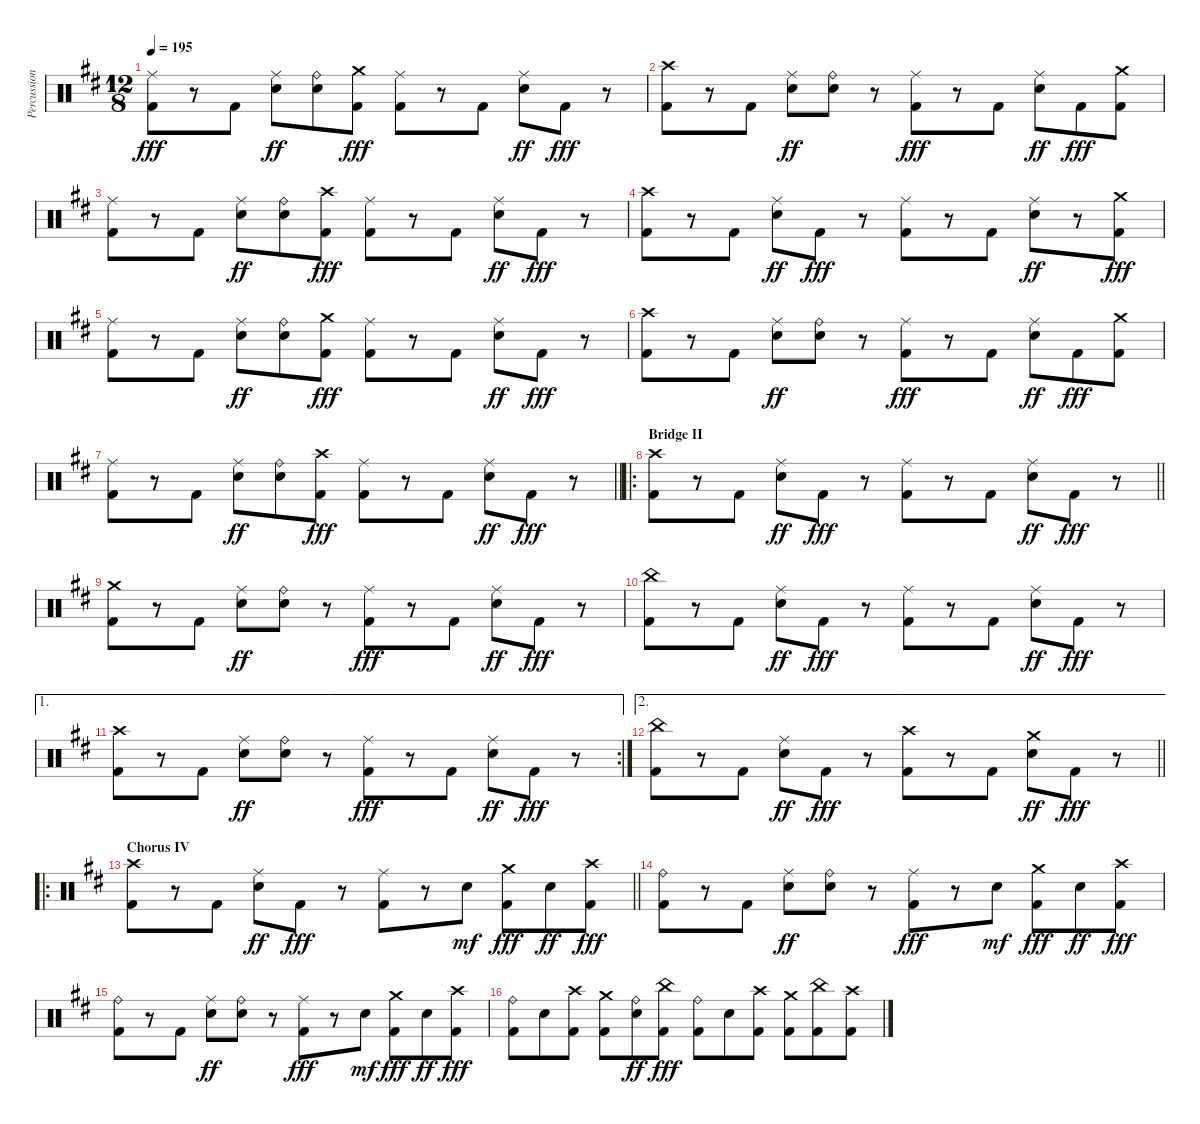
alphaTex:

\track ("Percussion" "Percussion") {instrument percussion}
\staff {score}
\articulation defaults
\ts (12 8)
\tempo 195
\clef neutral
\ks d
("Ride (middle)" "Kick (hit) 2").8{dy fff} r.8 "Kick (hit) 2".8 ("Ride (middle)" "Snare (hit) 2").8{dy ff} ("Ride (bell)" "Snare (hit) 2").8 ("Crash medium (hit)" "Kick (hit) 2").8{dy fff} ("Ride (middle)" "Kick (hit) 2").8 r.8 "Kick (hit) 2".8 ("Ride (middle)" "Snare (hit) 2").8{dy ff} "Kick (hit) 2".8{dy fff} r.8 |
("Crash high (hit)" "Kick (hit) 2").8 r.8 "Kick (hit) 2".8 ("Ride (middle)" "Snare (hit) 2").8{dy ff} ("Ride (bell)" "Snare (hit) 2").8 r.8 ("Ride (middle)" "Kick (hit) 2").8{dy fff} r.8 "Kick (hit) 2".8 ("Ride (middle)" "Snare (hit) 2").8{dy ff} "Kick (hit) 2".8{dy fff} ("Crash medium (hit)" "Kick (hit) 2").8 |
("Ride (middle)" "Kick (hit) 2").8 r.8 "Kick (hit) 2".8 ("Ride (middle)" "Snare (hit) 2").8{dy ff} ("Ride (bell)" "Snare (hit) 2").8 ("Crash high (hit)" "Kick (hit) 2").8{dy fff} ("Ride (middle)" "Kick (hit) 2").8 r.8 "Kick (hit) 2".8 ("Ride (middle)" "Snare (hit) 2").8{dy ff} "Kick (hit) 2".8{dy fff} r.8 |
("Crash high (hit)" "Kick (hit) 2").8 r.8 "Kick (hit) 2".8 ("Ride (middle)" "Snare (hit) 2").8{dy ff} "Kick (hit) 2".8{dy fff} r.8 ("Ride (middle)" "Kick (hit) 2").8 r.8 "Kick (hit) 2".8 ("Ride (middle)" "Snare (hit) 2").8{dy ff} r.8 ("Crash medium (hit)" "Kick (hit) 2").8{dy fff} |
("Ride (middle)" "Kick (hit) 2").8 r.8 "Kick (hit) 2".8 ("Ride (middle)" "Snare (hit) 2").8{dy ff} ("Ride (bell)" "Snare (hit) 2").8 ("Crash medium (hit)" "Kick (hit) 2").8{dy fff} ("Ride (middle)" "Kick (hit) 2").8 r.8 "Kick (hit) 2".8 ("Ride (middle)" "Snare (hit) 2").8{dy ff} "Kick (hit) 2".8{dy fff} r.8 |
("Crash high (hit)" "Kick (hit) 2").8 r.8 "Kick (hit) 2".8 ("Ride (middle)" "Snare (hit) 2").8{dy ff} ("Ride (bell)" "Snare (hit) 2").8 r.8 ("Ride (middle)" "Kick (hit) 2").8{dy fff} r.8 "Kick (hit) 2".8 ("Ride (middle)" "Snare (hit) 2").8{dy ff} "Kick (hit) 2".8{dy fff} ("Crash medium (hit)" "Kick (hit) 2").8 |
\barLineRight lightlight
("Ride (middle)" "Kick (hit) 2").8 r.8 "Kick (hit) 2".8 ("Ride (middle)" "Snare (hit) 2").8{dy ff} ("Ride (bell)" "Snare (hit) 2").8 ("Crash high (hit)" "Kick (hit) 2").8{dy fff} ("Ride (middle)" "Kick (hit) 2").8 r.8 "Kick (hit) 2".8 ("Ride (middle)" "Snare (hit) 2").8{dy ff} "Kick (hit) 2".8{dy fff} r.8 |
\ro
\section ("" "Bridge II")
\barLineRight lightlight
("Crash high (hit)" "Kick (hit) 2").8 r.8 "Kick (hit) 2".8 ("Ride (middle)" "Snare (hit) 2").8{dy ff} "Kick (hit) 2".8{dy fff} r.8 ("Ride (middle)" "Kick (hit) 2").8 r.8 "Kick (hit) 2".8 ("Ride (middle)" "Snare (hit) 2").8{dy ff} "Kick (hit) 2".8{dy fff} r.8 |
("Crash medium (hit)" "Kick (hit) 2").8 r.8 "Kick (hit) 2".8 ("Ride (middle)" "Snare (hit) 2").8{dy ff} ("Ride (bell)" "Snare (hit) 2").8 r.8 ("Ride (middle)" "Kick (hit) 2").8{dy fff} r.8 "Kick (hit) 2".8 ("Ride (middle)" "Snare (hit) 2").8{dy ff} "Kick (hit) 2".8{dy fff} r.8 |
("China (hit)" "Kick (hit) 2").8 r.8 "Kick (hit) 2".8 ("Ride (middle)" "Snare (hit) 2").8{dy ff} "Kick (hit) 2".8{dy fff} r.8 ("Ride (middle)" "Kick (hit) 2").8 r.8 "Kick (hit) 2".8 ("Ride (middle)" "Snare (hit) 2").8{dy ff} "Kick (hit) 2".8{dy fff} r.8 |
\ae 1
\rc 2
("Crash high (hit)" "Kick (hit) 2").8 r.8 "Kick (hit) 2".8 ("Ride (middle)" "Snare (hit) 2").8{dy ff} ("Ride (bell)" "Snare (hit) 2").8 r.8 ("Ride (middle)" "Kick (hit) 2").8{dy fff} r.8 "Kick (hit) 2".8 ("Ride (middle)" "Snare (hit) 2").8{dy ff} "Kick (hit) 2".8{dy fff} r.8 |
\ae 2
\barLineRight lightlight
("China (hit)" "Kick (hit) 2").8 r.8 "Kick (hit) 2".8 ("Ride (middle)" "Snare (hit) 2").8{dy ff} "Kick (hit) 2".8{dy fff} r.8 ("Crash high (hit)" "Kick (hit) 2").8 r.8 "Kick (hit) 2".8 ("Crash medium (hit)" "Snare (hit) 2").8{dy ff} "Kick (hit) 2".8{dy fff} r.8 |
\ro
\section ("" "Chorus IV")
\barLineRight lightlight
("Crash high (hit)" "Kick (hit) 2").8 r.8 "Kick (hit) 2".8 ("Ride (middle)" "Snare (hit) 2").8{dy ff} "Kick (hit) 2".8{dy fff} r.8 ("Ride (middle)" "Kick (hit) 2").8 r.8 "Snare (hit) 2".8{dy mf} ("Crash medium (hit)" "Kick (hit) 2").8{dy fff} "Snare (hit) 2".8{dy ff} ("Crash high (hit)" "Kick (hit) 2").8{dy fff} |
("Ride (bell)" "Kick (hit) 2").8 r.8 "Kick (hit) 2".8 ("Ride (middle)" "Snare (hit) 2").8{dy ff} ("Ride (bell)" "Snare (hit) 2").8 r.8 ("Ride (middle)" "Kick (hit) 2").8{dy fff} r.8 "Snare (hit) 2".8{dy mf} ("Crash medium (hit)" "Kick (hit) 2").8{dy fff} "Snare (hit) 2".8{dy ff} ("Crash high (hit)" "Kick (hit) 2").8{dy fff} |
("Ride (bell)" "Kick (hit) 2").8 r.8 "Kick (hit) 2".8 ("Ride (middle)" "Snare (hit) 2").8{dy ff} ("Ride (bell)" "Snare (hit) 2").8 r.8 ("Ride (middle)" "Kick (hit) 2").8{dy fff} r.8 "Snare (hit) 2".8{dy mf} ("Crash medium (hit)" "Kick (hit) 2").8{dy fff} "Snare (hit) 2".8{dy ff} ("Crash high (hit)" "Kick (hit) 2").8{dy fff} |
("Ride (bell)" "Kick (hit) 2").8 "Snare (hit) 2".8 ("Crash high (hit)" "Kick (hit) 2").8 ("Crash medium (hit)" "Kick (hit) 2").8 ("Ride (bell)" "Snare (hit) 2").8{dy ff} ("China (hit)" "Kick (hit) 2").8{dy fff} ("Ride (bell)" "Kick (hit) 2").8 "Snare (hit) 2".8 ("Crash high (hit)" "Kick (hit) 2").8 ("Crash medium (hit)" "Kick (hit) 2").8 ("China (hit)" "Kick (hit) 2").8 ("Crash high (hit)" "Kick (hit) 2").8
